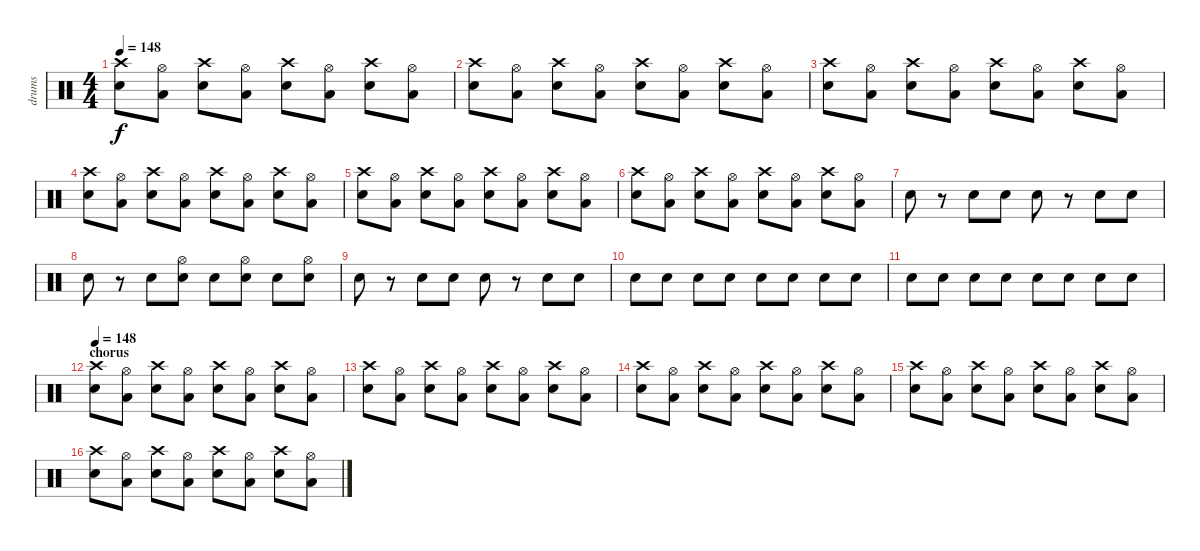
\track ("drums" "drums") {instrument percussion}
\staff {score}
\articulation defaults
\ts (4 4)
\tempo 148
\clef neutral
\ks c
("Crash high (hit)" "Snare (hit) 2").8{dy f} ("Hi-Hat (open)" "Low Tom (hit)").8 ("Crash high (hit)" "Snare (hit) 2").8 ("Hi-Hat (open)" "Low Tom (hit)").8 ("Crash high (hit)" "Snare (hit) 2").8 ("Hi-Hat (open)" "Low Tom (hit)").8 ("Crash high (hit)" "Snare (hit) 2").8 ("Hi-Hat (open)" "Low Tom (hit)").8 |
("Crash high (hit)" "Snare (hit) 2").8 ("Hi-Hat (open)" "Low Tom (hit)").8 ("Crash high (hit)" "Snare (hit) 2").8 ("Hi-Hat (open)" "Low Tom (hit)").8 ("Crash high (hit)" "Snare (hit) 2").8 ("Hi-Hat (open)" "Low Tom (hit)").8 ("Crash high (hit)" "Snare (hit) 2").8 ("Hi-Hat (open)" "Low Tom (hit)").8 |
("Crash high (hit)" "Snare (hit) 2").8 ("Hi-Hat (open)" "Low Tom (hit)").8 ("Crash high (hit)" "Snare (hit) 2").8 ("Hi-Hat (open)" "Low Tom (hit)").8 ("Crash high (hit)" "Snare (hit) 2").8 ("Hi-Hat (open)" "Low Tom (hit)").8 ("Crash high (hit)" "Snare (hit) 2").8 ("Hi-Hat (open)" "Low Tom (hit)").8 |
("Crash high (hit)" "Snare (hit) 2").8 ("Hi-Hat (open)" "Low Tom (hit)").8 ("Crash high (hit)" "Snare (hit) 2").8 ("Hi-Hat (open)" "Low Tom (hit)").8 ("Crash high (hit)" "Snare (hit) 2").8 ("Hi-Hat (open)" "Low Tom (hit)").8 ("Crash high (hit)" "Snare (hit) 2").8 ("Hi-Hat (open)" "Low Tom (hit)").8 |
("Crash high (hit)" "Snare (hit) 2").8 ("Hi-Hat (open)" "Low Tom (hit)").8 ("Crash high (hit)" "Snare (hit) 2").8 ("Hi-Hat (open)" "Low Tom (hit)").8 ("Crash high (hit)" "Snare (hit) 2").8 ("Hi-Hat (open)" "Low Tom (hit)").8 ("Crash high (hit)" "Snare (hit) 2").8 ("Hi-Hat (open)" "Low Tom (hit)").8 |
("Crash high (hit)" "Snare (hit) 2").8 ("Hi-Hat (open)" "Low Tom (hit)").8 ("Crash high (hit)" "Snare (hit) 2").8 ("Hi-Hat (open)" "Low Tom (hit)").8 ("Crash high (hit)" "Snare (hit) 2").8 ("Hi-Hat (open)" "Low Tom (hit)").8 ("Crash high (hit)" "Snare (hit) 2").8 ("Hi-Hat (open)" "Low Tom (hit)").8 |
"Snare (hit) 2".8 r.8 "Snare (hit) 2".8 "Snare (hit) 2".8 "Snare (hit) 2".8 r.8 "Snare (hit) 2".8 "Snare (hit) 2".8 |
"Snare (hit) 2".8 r.8 "Snare (hit) 2".8 ("Hi-Hat (open)" "Snare (hit) 2").8 "Snare (hit) 2".8 ("Hi-Hat (open)" "Snare (hit) 2").8 "Snare (hit) 2".8 ("Hi-Hat (open)" "Snare (hit) 2").8 |
"Snare (hit) 2".8 r.8 "Snare (hit) 2".8 "Snare (hit) 2".8 "Snare (hit) 2".8 r.8 "Snare (hit) 2".8 "Snare (hit) 2".8 |
"Snare (hit) 2".8 "Snare (hit) 2".8 "Snare (hit) 2".8 "Snare (hit) 2".8 "Snare (hit) 2".8 "Snare (hit) 2".8 "Snare (hit) 2".8 "Snare (hit) 2".8 |
"Snare (hit) 2".8 "Snare (hit) 2".8 "Snare (hit) 2".8 "Snare (hit) 2".8 "Snare (hit) 2".8 "Snare (hit) 2".8 "Snare (hit) 2".8 "Snare (hit) 2".8 |
\section ("" "chorus")
\tempo 148
("Crash high (hit)" "Snare (hit) 2").8 ("Hi-Hat (open)" "Low Tom (hit)").8 ("Crash high (hit)" "Snare (hit) 2").8 ("Hi-Hat (open)" "Low Tom (hit)").8 ("Crash high (hit)" "Snare (hit) 2").8 ("Hi-Hat (open)" "Low Tom (hit)").8 ("Crash high (hit)" "Snare (hit) 2").8 ("Hi-Hat (open)" "Low Tom (hit)").8 |
("Crash high (hit)" "Snare (hit) 2").8 ("Hi-Hat (open)" "Low Tom (hit)").8 ("Crash high (hit)" "Snare (hit) 2").8 ("Hi-Hat (open)" "Low Tom (hit)").8 ("Crash high (hit)" "Snare (hit) 2").8 ("Hi-Hat (open)" "Low Tom (hit)").8 ("Crash high (hit)" "Snare (hit) 2").8 ("Hi-Hat (open)" "Low Tom (hit)").8 |
("Crash high (hit)" "Snare (hit) 2").8 ("Hi-Hat (open)" "Low Tom (hit)").8 ("Crash high (hit)" "Snare (hit) 2").8 ("Hi-Hat (open)" "Low Tom (hit)").8 ("Crash high (hit)" "Snare (hit) 2").8 ("Hi-Hat (open)" "Low Tom (hit)").8 ("Crash high (hit)" "Snare (hit) 2").8 ("Hi-Hat (open)" "Low Tom (hit)").8 |
("Crash high (hit)" "Snare (hit) 2").8 ("Hi-Hat (open)" "Low Tom (hit)").8 ("Crash high (hit)" "Snare (hit) 2").8 ("Hi-Hat (open)" "Low Tom (hit)").8 ("Crash high (hit)" "Snare (hit) 2").8 ("Hi-Hat (open)" "Low Tom (hit)").8 ("Crash high (hit)" "Snare (hit) 2").8 ("Hi-Hat (open)" "Low Tom (hit)").8 |
("Crash high (hit)" "Snare (hit) 2").8 ("Hi-Hat (open)" "Low Tom (hit)").8 ("Crash high (hit)" "Snare (hit) 2").8 ("Hi-Hat (open)" "Low Tom (hit)").8 ("Crash high (hit)" "Snare (hit) 2").8 ("Hi-Hat (open)" "Low Tom (hit)").8 ("Crash high (hit)" "Snare (hit) 2").8 ("Hi-Hat (open)" "Low Tom (hit)").8
